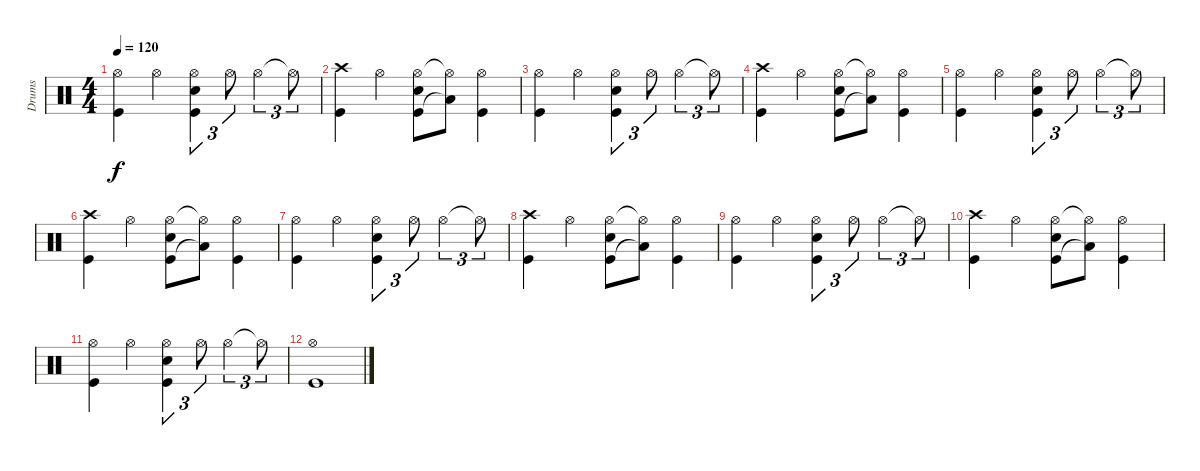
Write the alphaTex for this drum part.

\track ("Drums" "Drums") {instrument percussion}
\staff {score}
\articulation defaults
\ts (4 4)
\tempo 120
\clef neutral
\ks c
("Hi-Hat (open)" "Kick (hit)").4{dy f} "Hi-Hat (open)".4 ("Hi-Hat (open)" "Kick (hit)" "Electric Snare (hit)").4{tu (3 2)} "Hi-Hat (open)".8{tu (3 2)} "Hi-Hat (open)".4{tu (3 2)} "Hi-Hat (open)"{t}.8{tu (3 2)} |
("Crash high (hit)" "Kick (hit)").4 "Hi-Hat (open)".4 ("Hi-Hat (open)" "Kick (hit)" "Electric Snare (hit)").8 ("Hi-Hat (open)"{t} "Low Tom (hit)"{t}).8 ("Hi-Hat (open)" "Kick (hit)").4 |
("Hi-Hat (open)" "Kick (hit)").4 "Hi-Hat (open)".4 ("Hi-Hat (open)" "Kick (hit)" "Electric Snare (hit)").4{tu (3 2)} "Hi-Hat (open)".8{tu (3 2)} "Hi-Hat (open)".4{tu (3 2)} "Hi-Hat (open)"{t}.8{tu (3 2)} |
("Crash high (hit)" "Kick (hit)").4 "Hi-Hat (open)".4 ("Hi-Hat (open)" "Kick (hit)" "Electric Snare (hit)").8 ("Hi-Hat (open)"{t} "Low Tom (hit)"{t}).8 ("Hi-Hat (open)" "Kick (hit)").4 |
("Hi-Hat (open)" "Kick (hit)").4 "Hi-Hat (open)".4 ("Hi-Hat (open)" "Kick (hit)" "Electric Snare (hit)").4{tu (3 2)} "Hi-Hat (open)".8{tu (3 2)} "Hi-Hat (open)".4{tu (3 2)} "Hi-Hat (open)"{t}.8{tu (3 2)} |
("Crash high (hit)" "Kick (hit)").4 "Hi-Hat (open)".4 ("Hi-Hat (open)" "Kick (hit)" "Electric Snare (hit)").8 ("Hi-Hat (open)"{t} "Low Tom (hit)"{t}).8 ("Hi-Hat (open)" "Kick (hit)").4 |
("Hi-Hat (open)" "Kick (hit)").4 "Hi-Hat (open)".4 ("Hi-Hat (open)" "Kick (hit)" "Electric Snare (hit)").4{tu (3 2)} "Hi-Hat (open)".8{tu (3 2)} "Hi-Hat (open)".4{tu (3 2)} "Hi-Hat (open)"{t}.8{tu (3 2)} |
("Crash high (hit)" "Kick (hit)").4 "Hi-Hat (open)".4 ("Hi-Hat (open)" "Kick (hit)" "Electric Snare (hit)").8 ("Hi-Hat (open)"{t} "Low Tom (hit)"{t}).8 ("Hi-Hat (open)" "Kick (hit)").4 |
("Hi-Hat (open)" "Kick (hit)").4 "Hi-Hat (open)".4 ("Hi-Hat (open)" "Kick (hit)" "Electric Snare (hit)").4{tu (3 2)} "Hi-Hat (open)".8{tu (3 2)} "Hi-Hat (open)".4{tu (3 2)} "Hi-Hat (open)"{t}.8{tu (3 2)} |
("Crash high (hit)" "Kick (hit)").4 "Hi-Hat (open)".4 ("Hi-Hat (open)" "Kick (hit)" "Electric Snare (hit)").8 ("Hi-Hat (open)"{t} "Low Tom (hit)"{t}).8 ("Hi-Hat (open)" "Kick (hit)").4 |
("Hi-Hat (open)" "Kick (hit)").4 "Hi-Hat (open)".4 ("Hi-Hat (open)" "Kick (hit)" "Electric Snare (hit)").4{tu (3 2)} "Hi-Hat (open)".8{tu (3 2)} "Hi-Hat (open)".4{tu (3 2)} "Hi-Hat (open)"{t}.8{tu (3 2)} |
("Hi-Hat (open)" "Kick (hit)").1
